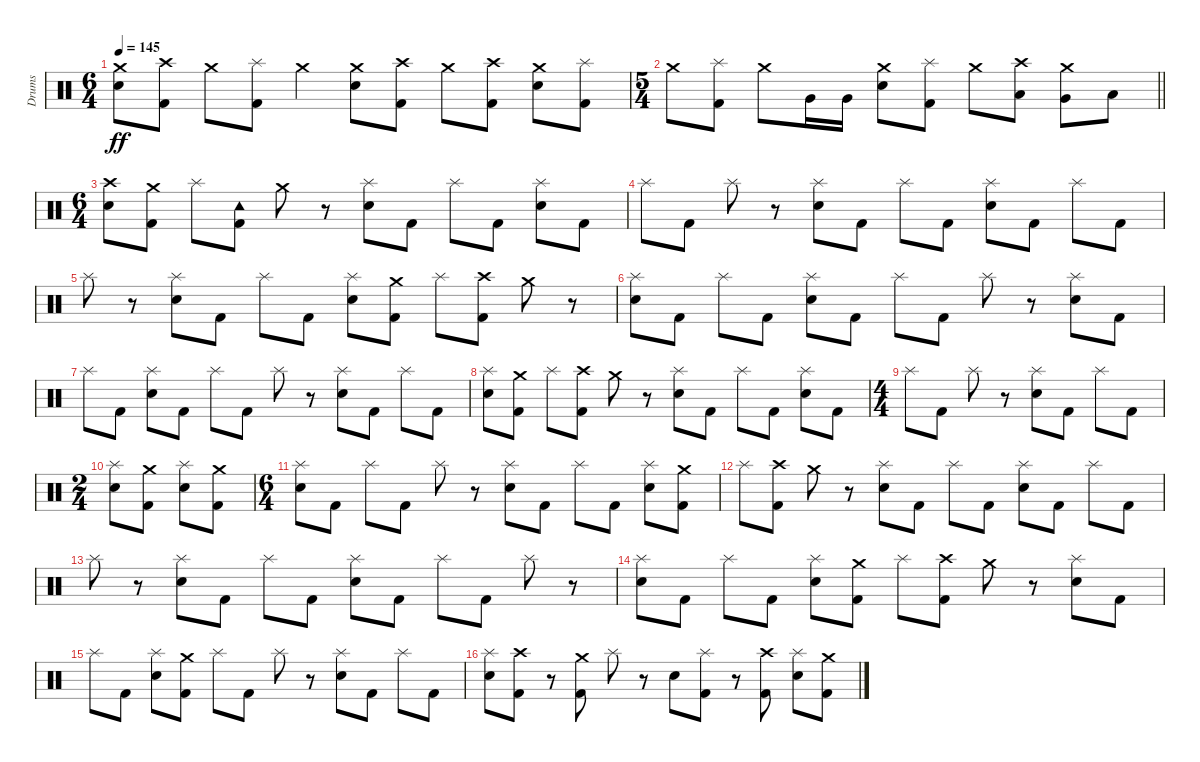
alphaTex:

\track ("Drums" "Drums") {instrument percussion}
\staff {score}
\articulation defaults
\ts (6 4)
\tempo 145
\clef neutral
\ks c
("Crash medium (hit)" "Electric Snare (hit)").8{dy ff} ("Crash high (hit)" "Kick (hit) 2").8 "Crash medium (hit)".8 ("Splash (hit)" "Kick (hit) 2").8 "Crash medium (hit)".4 ("Crash medium (hit)" "Electric Snare (hit)").8 ("Crash high (hit)" "Kick (hit) 2").8 "Crash medium (hit)".8 ("Crash high (hit)" "Kick (hit) 2").8 ("Crash medium (hit)" "Electric Snare (hit)").8 ("Splash (hit)" "Kick (hit) 2").8 |
\ts (5 4)
\barLineRight lightlight "Crash medium (hit)".8
("Splash (hit)" "Kick (hit) 2").8 "Crash medium (hit)".8 "Very Low Tom (hit)".16 "Very Low Tom (hit)".16 ("Crash medium (hit)" "Electric Snare (hit)").8 ("Splash (hit)" "Kick (hit) 2").8 "Crash medium (hit)".8 ("Crash high (hit)" "Low Tom (hit)").8 ("Crash medium (hit)" "Very Low Tom (hit)").8 "Low Floor Tom (hit)".8 |
\ts (6 4)
\section ("" "")
("Crash high (hit)" "Electric Snare (hit)").8 ("Crash medium (hit)" "Kick (hit) 2").8 "Splash (hit)".8 ("Tambourine (hit)" "Kick (hit) 2").8 "Crash medium (hit)".8 r.8 ("Splash (hit)" "Electric Snare (hit)").8 "Kick (hit) 2".8 "Splash (hit)".8 "Kick (hit) 2".8 ("Splash (hit)" "Electric Snare (hit)").8 "Kick (hit) 2".8 |
"Splash (hit)".8 "Kick (hit) 2".8 "Splash (hit)".8 r.8 ("Splash (hit)" "Electric Snare (hit)").8 "Kick (hit) 2".8 "Splash (hit)".8 "Kick (hit) 2".8 ("Splash (hit)" "Electric Snare (hit)").8 "Kick (hit) 2".8 "Splash (hit)".8 "Kick (hit) 2".8 |
"Splash (hit)".8 r.8 ("Splash (hit)" "Electric Snare (hit)").8 "Kick (hit) 2".8 "Splash (hit)".8 "Kick (hit) 2".8 ("Splash (hit)" "Electric Snare (hit)").8 ("Crash medium (hit)" "Kick (hit) 2").8 "Splash (hit)".8 ("Crash high (hit)" "Kick (hit) 2").8 "Crash medium (hit)".8 r.8 |
("Splash (hit)" "Electric Snare (hit)").8 "Kick (hit) 2".8 "Splash (hit)".8 "Kick (hit) 2".8 ("Splash (hit)" "Electric Snare (hit)").8 "Kick (hit) 2".8 "Splash (hit)".8 "Kick (hit) 2".8 "Splash (hit)".8 r.8 ("Splash (hit)" "Electric Snare (hit)").8 "Kick (hit) 2".8 |
"Splash (hit)".8 "Kick (hit) 2".8 ("Splash (hit)" "Electric Snare (hit)").8 "Kick (hit) 2".8 "Splash (hit)".8 "Kick (hit) 2".8 "Splash (hit)".8 r.8 ("Splash (hit)" "Electric Snare (hit)").8 "Kick (hit) 2".8 "Splash (hit)".8 "Kick (hit) 2".8 |
("Splash (hit)" "Electric Snare (hit)").8 ("Crash medium (hit)" "Kick (hit) 2").8 "Splash (hit)".8 ("Crash high (hit)" "Kick (hit) 2").8 "Crash medium (hit)".8 r.8 ("Splash (hit)" "Electric Snare (hit)").8 "Kick (hit) 2".8 "Splash (hit)".8 "Kick (hit) 2".8 ("Splash (hit)" "Electric Snare (hit)").8 "Kick (hit) 2".8 |
\ts (4 4)
"Splash (hit)".8 "Kick (hit) 2".8 "Splash (hit)".8 r.8 ("Splash (hit)" "Electric Snare (hit)").8 "Kick (hit) 2".8 "Splash (hit)".8 "Kick (hit) 2".8 |
\ts (2 4)
("Splash (hit)" "Electric Snare (hit)").8 ("Crash medium (hit)" "Kick (hit) 2").8 ("Splash (hit)" "Electric Snare (hit)").8 ("Crash medium (hit)" "Kick (hit) 2").8 |
\ts (6 4)
("Splash (hit)" "Electric Snare (hit)").8 "Kick (hit) 2".8 "Splash (hit)".8 "Kick (hit) 2".8 "Splash (hit)".8 r.8 ("Splash (hit)" "Electric Snare (hit)").8 "Kick (hit) 2".8 "Splash (hit)".8 "Kick (hit) 2".8 ("Splash (hit)" "Electric Snare (hit)").8 ("Crash medium (hit)" "Kick (hit) 2").8 |
"Splash (hit)".8 ("Crash high (hit)" "Kick (hit) 2").8 "Crash medium (hit)".8 r.8 ("Splash (hit)" "Electric Snare (hit)").8 "Kick (hit) 2".8 "Splash (hit)".8 "Kick (hit) 2".8 ("Splash (hit)" "Electric Snare (hit)").8 "Kick (hit) 2".8 "Splash (hit)".8 "Kick (hit) 2".8 |
"Splash (hit)".8 r.8 ("Splash (hit)" "Electric Snare (hit)").8 "Kick (hit) 2".8 "Splash (hit)".8 "Kick (hit) 2".8 ("Splash (hit)" "Electric Snare (hit)").8 "Kick (hit) 2".8 "Splash (hit)".8 "Kick (hit) 2".8 "Splash (hit)".8 r.8 |
("Splash (hit)" "Electric Snare (hit)").8 "Kick (hit) 2".8 "Splash (hit)".8 "Kick (hit) 2".8 ("Splash (hit)" "Electric Snare (hit)").8 ("Crash medium (hit)" "Kick (hit) 2").8 "Splash (hit)".8 ("Crash high (hit)" "Kick (hit) 2").8 "Crash medium (hit)".8 r.8 ("Splash (hit)" "Electric Snare (hit)").8 "Kick (hit) 2".8 |
"Splash (hit)".8 "Kick (hit) 2".8 ("Splash (hit)" "Electric Snare (hit)").8 ("Crash medium (hit)" "Kick (hit) 2").8 "Splash (hit)".8 "Kick (hit) 2".8 "Splash (hit)".8 r.8 ("Splash (hit)" "Electric Snare (hit)").8 "Kick (hit) 2".8 "Splash (hit)".8 "Kick (hit) 2".8 |
("Splash (hit)" "Electric Snare (hit)").8 ("Crash high (hit)" "Kick (hit) 2").8 r.8 ("Crash medium (hit)" "Kick (hit) 2").8 "Splash (hit)".8 r.8 "Electric Snare (hit)".8 ("Splash (hit)" "Kick (hit) 2").8 r.8 ("Crash high (hit)" "Kick (hit) 2").8 ("Splash (hit)" "Electric Snare (hit)").8 ("Crash medium (hit)" "Kick (hit) 2").8
